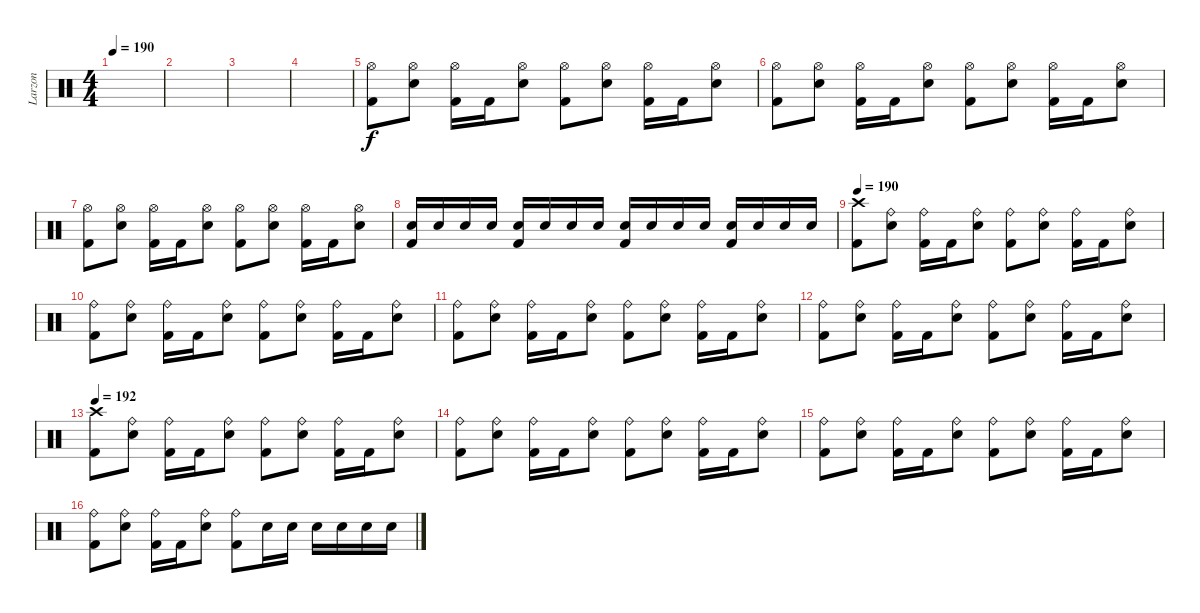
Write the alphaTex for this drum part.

\track ("Larzon" "Larzon") {instrument percussion}
\staff {score}
\articulation defaults
\ts (4 4)
\tempo 190
\tempo 170
\tempo 190
\clef neutral
\ks c
|
|
|
|
("Hi-Hat (open)" "Kick (hit) 2").8 ("Hi-Hat (open)" "Electric Snare (hit)").8 ("Hi-Hat (open)" "Kick (hit) 2").16 "Kick (hit) 2".16 ("Hi-Hat (open)" "Electric Snare (hit)").8 ("Hi-Hat (open)" "Kick (hit) 2").8 ("Hi-Hat (open)" "Electric Snare (hit)").8 ("Hi-Hat (open)" "Kick (hit) 2").16 "Kick (hit) 2".16 ("Hi-Hat (open)" "Electric Snare (hit)").8 |
("Hi-Hat (open)" "Kick (hit) 2").8 ("Hi-Hat (open)" "Electric Snare (hit)").8 ("Hi-Hat (open)" "Kick (hit) 2").16 "Kick (hit) 2".16 ("Hi-Hat (open)" "Electric Snare (hit)").8 ("Hi-Hat (open)" "Kick (hit) 2").8 ("Hi-Hat (open)" "Electric Snare (hit)").8 ("Hi-Hat (open)" "Kick (hit) 2").16 "Kick (hit) 2".16 ("Hi-Hat (open)" "Electric Snare (hit)").8 |
("Hi-Hat (open)" "Kick (hit) 2").8 ("Hi-Hat (open)" "Electric Snare (hit)").8 ("Hi-Hat (open)" "Kick (hit) 2").16 "Kick (hit) 2".16 ("Hi-Hat (open)" "Electric Snare (hit)").8 ("Hi-Hat (open)" "Kick (hit) 2").8 ("Hi-Hat (open)" "Electric Snare (hit)").8 ("Hi-Hat (open)" "Kick (hit) 2").16 "Kick (hit) 2".16 ("Hi-Hat (open)" "Electric Snare (hit)").8 |
("Kick (hit) 2" "Electric Snare (hit)").16 "Electric Snare (hit)".16 "Electric Snare (hit)".16 "Electric Snare (hit)".16 ("Kick (hit) 2" "Electric Snare (hit)").16 "Electric Snare (hit)".16 "Electric Snare (hit)".16 "Electric Snare (hit)".16 ("Kick (hit) 2" "Electric Snare (hit)").16 "Electric Snare (hit)".16 "Electric Snare (hit)".16 "Electric Snare (hit)".16 ("Kick (hit) 2" "Electric Snare (hit)").16 "Electric Snare (hit)".16 "Electric Snare (hit)".16 "Electric Snare (hit)".16 |
\tempo 190
("Crash high (hit)" "Kick (hit) 2").8 ("Ride (bell)" "Electric Snare (hit)").8 ("Ride (bell)" "Kick (hit) 2").16 "Kick (hit) 2".16 ("Ride (bell)" "Electric Snare (hit)").8 ("Ride (bell)" "Kick (hit) 2").8 ("Ride (bell)" "Electric Snare (hit)").8 ("Ride (bell)" "Kick (hit) 2").16 "Kick (hit) 2".16 ("Ride (bell)" "Electric Snare (hit)").8 |
("Ride (bell)" "Kick (hit) 2").8 ("Ride (bell)" "Electric Snare (hit)").8 ("Ride (bell)" "Kick (hit) 2").16 "Kick (hit) 2".16 ("Ride (bell)" "Electric Snare (hit)").8 ("Ride (bell)" "Kick (hit) 2").8 ("Ride (bell)" "Electric Snare (hit)").8 ("Ride (bell)" "Kick (hit) 2").16 "Kick (hit) 2".16 ("Ride (bell)" "Electric Snare (hit)").8 |
("Ride (bell)" "Kick (hit) 2").8 ("Ride (bell)" "Electric Snare (hit)").8 ("Ride (bell)" "Kick (hit) 2").16 "Kick (hit) 2".16 ("Ride (bell)" "Electric Snare (hit)").8 ("Ride (bell)" "Kick (hit) 2").8 ("Ride (bell)" "Electric Snare (hit)").8 ("Ride (bell)" "Kick (hit) 2").16 "Kick (hit) 2".16 ("Ride (bell)" "Electric Snare (hit)").8 |
("Ride (bell)" "Kick (hit) 2").8 ("Ride (bell)" "Electric Snare (hit)").8 ("Ride (bell)" "Kick (hit) 2").16 "Kick (hit) 2".16 ("Ride (bell)" "Electric Snare (hit)").8 ("Ride (bell)" "Kick (hit) 2").8 ("Ride (bell)" "Electric Snare (hit)").8 ("Ride (bell)" "Kick (hit) 2").16 "Kick (hit) 2".16 ("Ride (bell)" "Electric Snare (hit)").8 |
\tempo 192
("Crash high (hit)" "Kick (hit) 2").8 ("Ride (bell)" "Electric Snare (hit)").8 ("Ride (bell)" "Kick (hit) 2").16 "Kick (hit) 2".16 ("Ride (bell)" "Electric Snare (hit)").8 ("Ride (bell)" "Kick (hit) 2").8 ("Ride (bell)" "Electric Snare (hit)").8 ("Ride (bell)" "Kick (hit) 2").16 "Kick (hit) 2".16 ("Ride (bell)" "Electric Snare (hit)").8 |
("Ride (bell)" "Kick (hit) 2").8 ("Ride (bell)" "Electric Snare (hit)").8 ("Ride (bell)" "Kick (hit) 2").16 "Kick (hit) 2".16 ("Ride (bell)" "Electric Snare (hit)").8 ("Ride (bell)" "Kick (hit) 2").8 ("Ride (bell)" "Electric Snare (hit)").8 ("Ride (bell)" "Kick (hit) 2").16 "Kick (hit) 2".16 ("Ride (bell)" "Electric Snare (hit)").8 |
("Ride (bell)" "Kick (hit) 2").8 ("Ride (bell)" "Electric Snare (hit)").8 ("Ride (bell)" "Kick (hit) 2").16 "Kick (hit) 2".16 ("Ride (bell)" "Electric Snare (hit)").8 ("Ride (bell)" "Kick (hit) 2").8 ("Ride (bell)" "Electric Snare (hit)").8 ("Ride (bell)" "Kick (hit) 2").16 "Kick (hit) 2".16 ("Ride (bell)" "Electric Snare (hit)").8 |
("Ride (bell)" "Kick (hit) 2").8 ("Ride (bell)" "Electric Snare (hit)").8 ("Ride (bell)" "Kick (hit) 2").16 "Kick (hit) 2".16 ("Ride (bell)" "Electric Snare (hit)").8 ("Ride (bell)" "Kick (hit) 2").8 "Electric Snare (hit)".16 "Electric Snare (hit)".16 "Electric Snare (hit)".16 "Electric Snare (hit)".16 "Electric Snare (hit)".16 "Electric Snare (hit)".16
